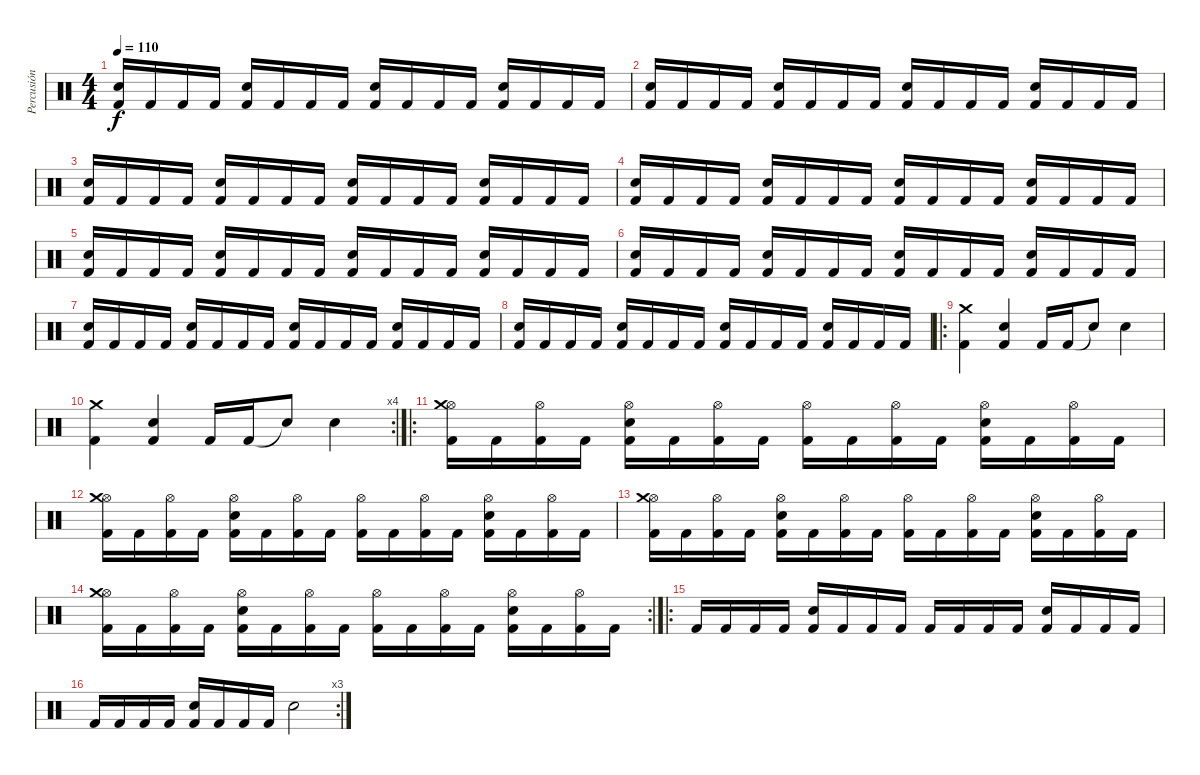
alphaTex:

\track ("Percusión" "Percusión") {instrument percussion}
\staff {score}
\articulation defaults
\ts (4 4)
\tempo 110
\clef neutral
\ks c
("Electric Snare (hit)" "Kick (hit) 2").16{dy f} "Kick (hit) 2".16 "Kick (hit) 2".16 "Kick (hit) 2".16 ("Electric Snare (hit)" "Kick (hit) 2").16 "Kick (hit) 2".16 "Kick (hit) 2".16 "Kick (hit) 2".16 ("Electric Snare (hit)" "Kick (hit) 2").16 "Kick (hit) 2".16 "Kick (hit) 2".16 "Kick (hit) 2".16 ("Electric Snare (hit)" "Kick (hit) 2").16 "Kick (hit) 2".16 "Kick (hit) 2".16 "Kick (hit) 2".16 |
("Electric Snare (hit)" "Kick (hit) 2").16 "Kick (hit) 2".16 "Kick (hit) 2".16 "Kick (hit) 2".16 ("Electric Snare (hit)" "Kick (hit) 2").16 "Kick (hit) 2".16 "Kick (hit) 2".16 "Kick (hit) 2".16 ("Electric Snare (hit)" "Kick (hit) 2").16 "Kick (hit) 2".16 "Kick (hit) 2".16 "Kick (hit) 2".16 ("Electric Snare (hit)" "Kick (hit) 2").16 "Kick (hit) 2".16 "Kick (hit) 2".16 "Kick (hit) 2".16 |
("Electric Snare (hit)" "Kick (hit) 2").16 "Kick (hit) 2".16 "Kick (hit) 2".16 "Kick (hit) 2".16 ("Electric Snare (hit)" "Kick (hit) 2").16 "Kick (hit) 2".16 "Kick (hit) 2".16 "Kick (hit) 2".16 ("Electric Snare (hit)" "Kick (hit) 2").16 "Kick (hit) 2".16 "Kick (hit) 2".16 "Kick (hit) 2".16 ("Electric Snare (hit)" "Kick (hit) 2").16 "Kick (hit) 2".16 "Kick (hit) 2".16 "Kick (hit) 2".16 |
("Electric Snare (hit)" "Kick (hit) 2").16 "Kick (hit) 2".16 "Kick (hit) 2".16 "Kick (hit) 2".16 ("Electric Snare (hit)" "Kick (hit) 2").16 "Kick (hit) 2".16 "Kick (hit) 2".16 "Kick (hit) 2".16 ("Electric Snare (hit)" "Kick (hit) 2").16 "Kick (hit) 2".16 "Kick (hit) 2".16 "Kick (hit) 2".16 ("Electric Snare (hit)" "Kick (hit) 2").16 "Kick (hit) 2".16 "Kick (hit) 2".16 "Kick (hit) 2".16 |
("Electric Snare (hit)" "Kick (hit) 2").16 "Kick (hit) 2".16 "Kick (hit) 2".16 "Kick (hit) 2".16 ("Electric Snare (hit)" "Kick (hit) 2").16 "Kick (hit) 2".16 "Kick (hit) 2".16 "Kick (hit) 2".16 ("Electric Snare (hit)" "Kick (hit) 2").16 "Kick (hit) 2".16 "Kick (hit) 2".16 "Kick (hit) 2".16 ("Electric Snare (hit)" "Kick (hit) 2").16 "Kick (hit) 2".16 "Kick (hit) 2".16 "Kick (hit) 2".16 |
("Electric Snare (hit)" "Kick (hit) 2").16 "Kick (hit) 2".16 "Kick (hit) 2".16 "Kick (hit) 2".16 ("Electric Snare (hit)" "Kick (hit) 2").16 "Kick (hit) 2".16 "Kick (hit) 2".16 "Kick (hit) 2".16 ("Electric Snare (hit)" "Kick (hit) 2").16 "Kick (hit) 2".16 "Kick (hit) 2".16 "Kick (hit) 2".16 ("Electric Snare (hit)" "Kick (hit) 2").16 "Kick (hit) 2".16 "Kick (hit) 2".16 "Kick (hit) 2".16 |
("Electric Snare (hit)" "Kick (hit) 2").16 "Kick (hit) 2".16 "Kick (hit) 2".16 "Kick (hit) 2".16 ("Electric Snare (hit)" "Kick (hit) 2").16 "Kick (hit) 2".16 "Kick (hit) 2".16 "Kick (hit) 2".16 ("Electric Snare (hit)" "Kick (hit) 2").16 "Kick (hit) 2".16 "Kick (hit) 2".16 "Kick (hit) 2".16 ("Electric Snare (hit)" "Kick (hit) 2").16 "Kick (hit) 2".16 "Kick (hit) 2".16 "Kick (hit) 2".16 |
("Electric Snare (hit)" "Kick (hit) 2").16 "Kick (hit) 2".16 "Kick (hit) 2".16 "Kick (hit) 2".16 ("Electric Snare (hit)" "Kick (hit) 2").16 "Kick (hit) 2".16 "Kick (hit) 2".16 "Kick (hit) 2".16 ("Electric Snare (hit)" "Kick (hit) 2").16 "Kick (hit) 2".16 "Kick (hit) 2".16 "Kick (hit) 2".16 ("Electric Snare (hit)" "Kick (hit) 2").16 "Kick (hit) 2".16 "Kick (hit) 2".16 "Kick (hit) 2".16 |
\ro
("Crash medium (hit)" "Kick (hit) 2").4 ("Electric Snare (hit)" "Kick (hit) 2").4 "Kick (hit) 2".16 "Kick (hit) 2".16 "Snare (hit)"{t}.8 "Electric Snare (hit)".4 |
\rc 4
("Crash medium (hit)" "Kick (hit) 2").4 ("Electric Snare (hit)" "Kick (hit) 2").4 "Kick (hit) 2".16 "Kick (hit) 2".16 "Snare (hit)"{t}.8 "Electric Snare (hit)".4 |
\ro
("Hi-Hat (open)" "Crash medium (hit)" "Kick (hit) 2").16 "Kick (hit) 2".16 ("Hi-Hat (open)" "Kick (hit) 2").16 "Kick (hit) 2".16 ("Hi-Hat (open)" "Electric Snare (hit)" "Kick (hit) 2").16 "Kick (hit) 2".16 ("Hi-Hat (open)" "Kick (hit) 2").16 "Kick (hit) 2".16 ("Hi-Hat (open)" "Kick (hit) 2").16 "Kick (hit) 2".16 ("Hi-Hat (open)" "Kick (hit) 2").16 "Kick (hit) 2".16 ("Hi-Hat (open)" "Electric Snare (hit)" "Kick (hit) 2").16 "Kick (hit) 2".16 ("Hi-Hat (open)" "Kick (hit) 2").16 "Kick (hit) 2".16 |
("Hi-Hat (open)" "Crash medium (hit)" "Kick (hit) 2").16 "Kick (hit) 2".16 ("Hi-Hat (open)" "Kick (hit) 2").16 "Kick (hit) 2".16 ("Hi-Hat (open)" "Electric Snare (hit)" "Kick (hit) 2").16 "Kick (hit) 2".16 ("Hi-Hat (open)" "Kick (hit) 2").16 "Kick (hit) 2".16 ("Hi-Hat (open)" "Kick (hit) 2").16 "Kick (hit) 2".16 ("Hi-Hat (open)" "Kick (hit) 2").16 "Kick (hit) 2".16 ("Hi-Hat (open)" "Electric Snare (hit)" "Kick (hit) 2").16 "Kick (hit) 2".16 ("Hi-Hat (open)" "Kick (hit) 2").16 "Kick (hit) 2".16 |
("Hi-Hat (open)" "Crash medium (hit)" "Kick (hit) 2").16 "Kick (hit) 2".16 ("Hi-Hat (open)" "Kick (hit) 2").16 "Kick (hit) 2".16 ("Hi-Hat (open)" "Electric Snare (hit)" "Kick (hit) 2").16 "Kick (hit) 2".16 ("Hi-Hat (open)" "Kick (hit) 2").16 "Kick (hit) 2".16 ("Hi-Hat (open)" "Kick (hit) 2").16 "Kick (hit) 2".16 ("Hi-Hat (open)" "Kick (hit) 2").16 "Kick (hit) 2".16 ("Hi-Hat (open)" "Electric Snare (hit)" "Kick (hit) 2").16 "Kick (hit) 2".16 ("Hi-Hat (open)" "Kick (hit) 2").16 "Kick (hit) 2".16 |
\rc 2
("Hi-Hat (open)" "Crash medium (hit)" "Kick (hit) 2").16 "Kick (hit) 2".16 ("Hi-Hat (open)" "Kick (hit) 2").16 "Kick (hit) 2".16 ("Hi-Hat (open)" "Electric Snare (hit)" "Kick (hit) 2").16 "Kick (hit) 2".16 ("Hi-Hat (open)" "Kick (hit) 2").16 "Kick (hit) 2".16 ("Hi-Hat (open)" "Kick (hit) 2").16 "Kick (hit) 2".16 ("Hi-Hat (open)" "Kick (hit) 2").16 "Kick (hit) 2".16 ("Hi-Hat (open)" "Electric Snare (hit)" "Kick (hit) 2").16 "Kick (hit) 2".16 ("Hi-Hat (open)" "Kick (hit) 2").16 "Kick (hit) 2".16 |
\ro "Kick (hit) 2".16 "Kick (hit) 2".16 "Kick (hit) 2".16 "Kick (hit) 2".16
("Electric Snare (hit)" "Kick (hit) 2").16 "Kick (hit) 2".16 "Kick (hit) 2".16 "Kick (hit) 2".16 "Kick (hit) 2".16 "Kick (hit) 2".16 "Kick (hit) 2".16 "Kick (hit) 2".16 ("Electric Snare (hit)" "Kick (hit) 2").16 "Kick (hit) 2".16 "Kick (hit) 2".16 "Kick (hit) 2".16 |
\rc 3 "Kick (hit) 2".16 "Kick (hit) 2".16 "Kick (hit) 2".16 "Kick (hit) 2".16
("Electric Snare (hit)" "Kick (hit) 2").16 "Kick (hit) 2".16 "Kick (hit) 2".16 "Kick (hit) 2".16 "Electric Snare (hit)".2
